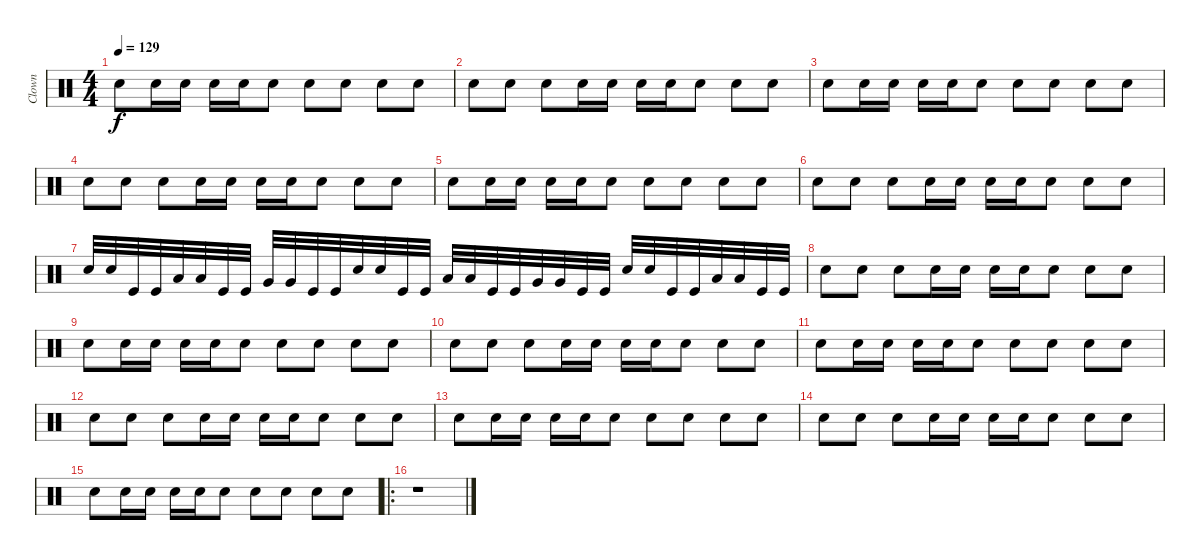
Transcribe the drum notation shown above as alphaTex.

\track ("Clown" "Clown") {instrument percussion}
\staff {score}
\articulation defaults
\ts (4 4)
\tempo 129
\clef neutral
\ks c "Snare (hit) 2".8{dy f} "Snare (hit) 2".16 "Snare (hit) 2".16 "Snare (hit) 2".16 "Snare (hit) 2".16 "Snare (hit) 2".8 "Snare (hit) 2".8 "Snare (hit) 2".8 "Snare (hit) 2".8 "Snare (hit) 2".8
|
"Snare (hit) 2".8 "Snare (hit) 2".8 "Snare (hit) 2".8 "Snare (hit) 2".16 "Snare (hit) 2".16 "Snare (hit) 2".16 "Snare (hit) 2".16 "Snare (hit) 2".8 "Snare (hit) 2".8 "Snare (hit) 2".8 |
"Snare (hit) 2".8 "Snare (hit) 2".16 "Snare (hit) 2".16 "Snare (hit) 2".16 "Snare (hit) 2".16 "Snare (hit) 2".8 "Snare (hit) 2".8 "Snare (hit) 2".8 "Snare (hit) 2".8 "Snare (hit) 2".8 |
"Snare (hit) 2".8 "Snare (hit) 2".8 "Snare (hit) 2".8 "Snare (hit) 2".16 "Snare (hit) 2".16 "Snare (hit) 2".16 "Snare (hit) 2".16 "Snare (hit) 2".8 "Snare (hit) 2".8 "Snare (hit) 2".8 |
"Snare (hit) 2".8 "Snare (hit) 2".16 "Snare (hit) 2".16 "Snare (hit) 2".16 "Snare (hit) 2".16 "Snare (hit) 2".8 "Snare (hit) 2".8 "Snare (hit) 2".8 "Snare (hit) 2".8 "Snare (hit) 2".8 |
"Snare (hit) 2".8 "Snare (hit) 2".8 "Snare (hit) 2".8 "Snare (hit) 2".16 "Snare (hit) 2".16 "Snare (hit) 2".16 "Snare (hit) 2".16 "Snare (hit) 2".8 "Snare (hit) 2".8 "Snare (hit) 2".8 |
"Snare (hit) 2".32 "Snare (hit) 2".32 "Kick (hit)".32 "Kick (hit)".32 "Low Floor Tom (hit)".32 "Low Floor Tom (hit)".32 "Kick (hit)".32 "Kick (hit)".32 "Very Low Tom (hit)".32 "Very Low Tom (hit)".32 "Kick (hit)".32 "Kick (hit)".32 "Snare (hit) 2".32 "Snare (hit) 2".32 "Kick (hit)".32 "Kick (hit)".32 "Low Floor Tom (hit)".32 "Low Floor Tom (hit)".32 "Kick (hit)".32 "Kick (hit)".32 "Very Low Tom (hit)".32 "Very Low Tom (hit)".32 "Kick (hit)".32 "Kick (hit)".32 "Snare (hit) 2".32 "Snare (hit) 2".32 "Kick (hit)".32 "Kick (hit)".32 "Low Floor Tom (hit)".32 "Low Floor Tom (hit)".32 "Kick (hit)".32 "Kick (hit)".32 |
"Snare (hit) 2".8 "Snare (hit) 2".8 "Snare (hit) 2".8 "Snare (hit) 2".16 "Snare (hit) 2".16 "Snare (hit) 2".16 "Snare (hit) 2".16 "Snare (hit) 2".8 "Snare (hit) 2".8 "Snare (hit) 2".8 |
"Snare (hit) 2".8 "Snare (hit) 2".16 "Snare (hit) 2".16 "Snare (hit) 2".16 "Snare (hit) 2".16 "Snare (hit) 2".8 "Snare (hit) 2".8 "Snare (hit) 2".8 "Snare (hit) 2".8 "Snare (hit) 2".8 |
"Snare (hit) 2".8 "Snare (hit) 2".8 "Snare (hit) 2".8 "Snare (hit) 2".16 "Snare (hit) 2".16 "Snare (hit) 2".16 "Snare (hit) 2".16 "Snare (hit) 2".8 "Snare (hit) 2".8 "Snare (hit) 2".8 |
"Snare (hit) 2".8 "Snare (hit) 2".16 "Snare (hit) 2".16 "Snare (hit) 2".16 "Snare (hit) 2".16 "Snare (hit) 2".8 "Snare (hit) 2".8 "Snare (hit) 2".8 "Snare (hit) 2".8 "Snare (hit) 2".8 |
"Snare (hit) 2".8 "Snare (hit) 2".8 "Snare (hit) 2".8 "Snare (hit) 2".16 "Snare (hit) 2".16 "Snare (hit) 2".16 "Snare (hit) 2".16 "Snare (hit) 2".8 "Snare (hit) 2".8 "Snare (hit) 2".8 |
"Snare (hit) 2".8 "Snare (hit) 2".16 "Snare (hit) 2".16 "Snare (hit) 2".16 "Snare (hit) 2".16 "Snare (hit) 2".8 "Snare (hit) 2".8 "Snare (hit) 2".8 "Snare (hit) 2".8 "Snare (hit) 2".8 |
"Snare (hit) 2".8 "Snare (hit) 2".8 "Snare (hit) 2".8 "Snare (hit) 2".16 "Snare (hit) 2".16 "Snare (hit) 2".16 "Snare (hit) 2".16 "Snare (hit) 2".8 "Snare (hit) 2".8 "Snare (hit) 2".8 |
"Snare (hit) 2".8 "Snare (hit) 2".16 "Snare (hit) 2".16 "Snare (hit) 2".16 "Snare (hit) 2".16 "Snare (hit) 2".8 "Snare (hit) 2".8 "Snare (hit) 2".8 "Snare (hit) 2".8 "Snare (hit) 2".8 |
\ro
r.1
